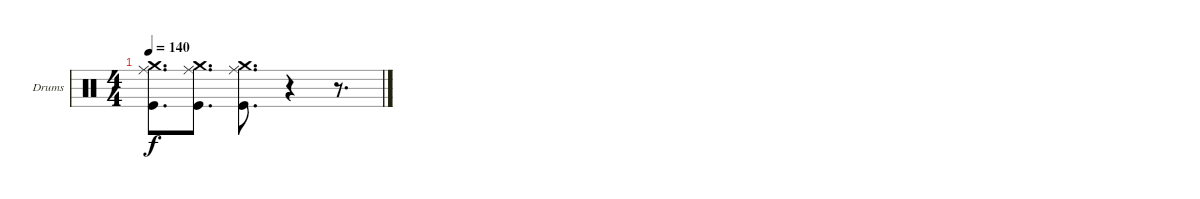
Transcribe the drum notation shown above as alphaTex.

\defaultSystemsLayout 4
\bracketExtendMode nobrackets
\firstSystemTrackNameOrientation horizontal
\otherSystemsTrackNameOrientation horizontal
\track ("Phil Taylor" "Drums") {instrument percussion}
\staff {score}
\articulation defaults
\ts (4 4)
\tempo 140
\clef neutral
\ks c
("Crash medium (hit)" "Ride (middle)" "Kick (hit)").8{d dy f} ("Crash medium (hit)" "Ride (middle)" "Kick (hit)").8{d} ("Crash medium (hit)" "Ride (middle)" "Kick (hit)").8{d} r.4 r.8{d}
